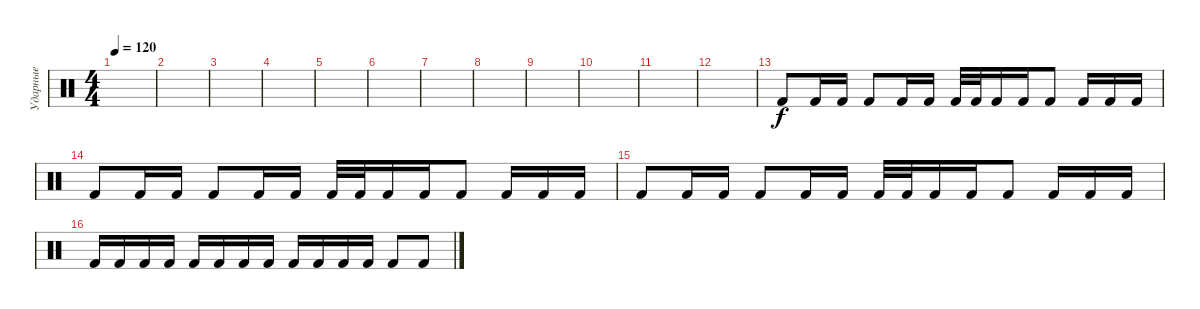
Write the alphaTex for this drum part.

\track ("Ударные" "Ударные") {instrument percussion}
\staff {score}
\articulation defaults
\ts (4 4)
\tempo 120
\clef neutral
\ks c
|
|
|
|
|
|
|
|
|
|
|
|
"Kick (hit) 2".8 "Kick (hit) 2".16 "Kick (hit) 2".16 "Kick (hit) 2".8 "Kick (hit) 2".16 "Kick (hit) 2".16 "Kick (hit) 2".32 "Kick (hit) 2".32 "Kick (hit) 2".16 "Kick (hit) 2".16 "Kick (hit) 2".8 "Kick (hit) 2".16 "Kick (hit) 2".16 "Kick (hit) 2".16 |
"Kick (hit) 2".8 "Kick (hit) 2".16 "Kick (hit) 2".16 "Kick (hit) 2".8 "Kick (hit) 2".16 "Kick (hit) 2".16 "Kick (hit) 2".32 "Kick (hit) 2".32 "Kick (hit) 2".16 "Kick (hit) 2".16 "Kick (hit) 2".8 "Kick (hit) 2".16 "Kick (hit) 2".16 "Kick (hit) 2".16 |
"Kick (hit) 2".8 "Kick (hit) 2".16 "Kick (hit) 2".16 "Kick (hit) 2".8 "Kick (hit) 2".16 "Kick (hit) 2".16 "Kick (hit) 2".32 "Kick (hit) 2".32 "Kick (hit) 2".16 "Kick (hit) 2".16 "Kick (hit) 2".8 "Kick (hit) 2".16 "Kick (hit) 2".16 "Kick (hit) 2".16 |
"Kick (hit) 2".16 "Kick (hit) 2".16 "Kick (hit) 2".16 "Kick (hit) 2".16 "Kick (hit) 2".16 "Kick (hit) 2".16 "Kick (hit) 2".16 "Kick (hit) 2".16 "Kick (hit) 2".16 "Kick (hit) 2".16 "Kick (hit) 2".16 "Kick (hit) 2".16 "Kick (hit) 2".8 "Kick (hit) 2".8
